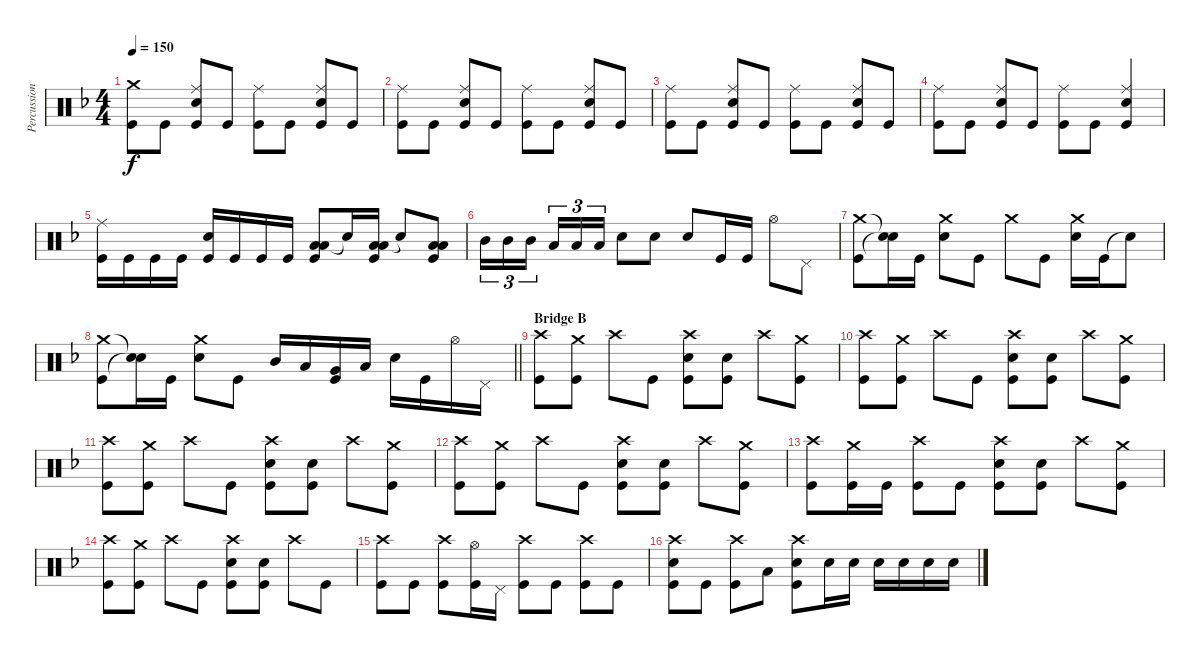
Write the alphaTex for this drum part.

\track ("Percussion" "Percussion") {instrument percussion}
\staff {score}
\articulation defaults
\ts (4 4)
\tempo 150
\clef neutral
\ks f
("Crash medium (hit)" "Kick (hit)").8{dy f} "Kick (hit)".8 ("Ride (middle)" "Electric Snare (hit)" "Kick (hit)").8 "Kick (hit)".8 ("Ride (middle)" "Kick (hit)").8 "Kick (hit)".8 ("Ride (middle)" "Electric Snare (hit)" "Kick (hit)").8 "Kick (hit)".8 |
("Ride (middle)" "Kick (hit)").8 "Kick (hit)".8 ("Ride (middle)" "Electric Snare (hit)" "Kick (hit)").8 "Kick (hit)".8 ("Ride (middle)" "Kick (hit)").8 "Kick (hit)".8 ("Ride (middle)" "Electric Snare (hit)" "Kick (hit)").8 "Kick (hit)".8 |
("Ride (middle)" "Kick (hit)").8 "Kick (hit)".8 ("Ride (middle)" "Electric Snare (hit)" "Kick (hit)").8 "Kick (hit)".8 ("Ride (middle)" "Kick (hit)").8 "Kick (hit)".8 ("Ride (middle)" "Electric Snare (hit)" "Kick (hit)").8 "Kick (hit)".8 |
("Ride (middle)" "Kick (hit)").8 "Kick (hit)".8 ("Ride (middle)" "Electric Snare (hit)" "Kick (hit)").8 "Kick (hit)".8 ("Ride (middle)" "Kick (hit)").8 "Kick (hit)".8 ("Ride (middle)" "Electric Snare (hit)" "Kick (hit)").4 |
("Ride (middle)" "Kick (hit)").16 "Kick (hit)".16 "Kick (hit)".16 "Kick (hit)".16 ("Electric Snare (hit)" "Kick (hit)").16 "Kick (hit)".16 "Kick (hit)".16 "Kick (hit)".16 ("Low Floor Tom (hit)" "Low Floor Tom (hit)" "Kick (hit)").8 "Snare (hit)"{t}.16 ("Low Floor Tom (hit)" "Low Floor Tom (hit)" "Kick (hit)").16 "Snare (hit)"{t}.8 ("Low Floor Tom (hit)" "Low Floor Tom (hit)" "Kick (hit)").8 |
"Mid Tom (hit)".16{tu (3 2)} "Mid Tom (hit)".16{tu (3 2)} "Mid Tom (hit)".16{tu (3 2) beam splitsecondary} "Low Tom (hit)".16{tu (3 2)} "Low Tom (hit)".16{tu (3 2)} "Low Tom (hit)".16{tu (3 2)} "Electric Snare (hit)".8 "Electric Snare (hit)".8 "Electric Snare (hit)".8 "Kick (hit)".16 "Kick (hit)".16 "Hi-Hat (open)".8 "Pedal Hi-Hat (hit)".8 |
("Crash medium (hit)" "Kick (hit)").8 ("Snare (hit)"{t} "Snare (hit)"{t}).16 "Kick (hit)".16 ("Crash medium (hit)" "Electric Snare (hit)").8 "Kick (hit)".8 "Crash medium (hit)".8 "Kick (hit)".8 ("Crash medium (hit)" "Electric Snare (hit)").16 "Kick (hit)".16 "Snare (hit)"{t}.8 |
\barLineRight lightlight
("Crash medium (hit)" "Kick (hit)").8 ("Snare (hit)"{t} "Snare (hit)"{t}).16 "Kick (hit)".16 ("Crash medium (hit)" "Electric Snare (hit)").8 "Kick (hit)".8 "Mid Tom (hit)".16 "Low Tom (hit)".16 ("Very Low Tom (hit)" "Kick (hit)").16 "Low Floor Tom (hit)".16 "Electric Snare (hit)".16 "Kick (hit)".16 "Hi-Hat (open)".16 "Pedal Hi-Hat (hit)".16 |
\section ("" "Bridge B")
("Crash high (hit)" "Kick (hit)").8 ("Crash medium (hit)" "Kick (hit)").8 "Crash high (hit)".8 "Kick (hit)".8 ("Crash high (hit)" "Electric Snare (hit)" "Kick (hit)").8 ("Electric Snare (hit)" "Kick (hit)").8 "Crash high (hit)".8 ("Crash medium (hit)" "Kick (hit)").8 |
("Crash high (hit)" "Kick (hit)").8 ("Crash medium (hit)" "Kick (hit)").8 "Crash high (hit)".8 "Kick (hit)".8 ("Crash high (hit)" "Electric Snare (hit)" "Kick (hit)").8 ("Electric Snare (hit)" "Kick (hit)").8 "Crash high (hit)".8 ("Crash medium (hit)" "Kick (hit)").8 |
("Crash high (hit)" "Kick (hit)").8 ("Crash medium (hit)" "Kick (hit)").8 "Crash high (hit)".8 "Kick (hit)".8 ("Crash high (hit)" "Electric Snare (hit)" "Kick (hit)").8 ("Electric Snare (hit)" "Kick (hit)").8 "Crash high (hit)".8 ("Crash medium (hit)" "Kick (hit)").8 |
("Crash high (hit)" "Kick (hit)").8 ("Crash medium (hit)" "Kick (hit)").8 "Crash high (hit)".8 "Kick (hit)".8 ("Crash high (hit)" "Electric Snare (hit)" "Kick (hit)").8 ("Electric Snare (hit)" "Kick (hit)").8 "Crash high (hit)".8 ("Crash medium (hit)" "Kick (hit)").8 |
("Crash high (hit)" "Kick (hit)").8 ("Crash medium (hit)" "Kick (hit)").16 "Kick (hit)".16 ("Crash high (hit)" "Kick (hit)").8 "Kick (hit)".8 ("Crash high (hit)" "Electric Snare (hit)" "Kick (hit)").8 ("Electric Snare (hit)" "Kick (hit)").8 "Crash high (hit)".8 ("Crash medium (hit)" "Kick (hit)").8 |
("Crash high (hit)" "Kick (hit)").8 ("Crash medium (hit)" "Kick (hit)").8 "Crash high (hit)".8 "Kick (hit)".8 ("Crash high (hit)" "Electric Snare (hit)" "Kick (hit)").8 ("Electric Snare (hit)" "Kick (hit)").8 "Crash high (hit)".8 "Kick (hit)".8 |
("Crash high (hit)" "Kick (hit)").8 "Kick (hit)".8 ("Crash high (hit)" "Kick (hit)").8 ("Hi-Hat (open)" "Kick (hit)").16 "Pedal Hi-Hat (hit)".16 ("Crash high (hit)" "Kick (hit)").8 "Kick (hit)".8 ("Crash high (hit)" "Kick (hit)").8 "Kick (hit)".8 |
("Crash high (hit)" "Electric Snare (hit)" "Kick (hit)").8 "Kick (hit)".8 ("Crash high (hit)" "Kick (hit)").8 "Low Floor Tom (hit)".8 ("Crash high (hit)" "Electric Snare (hit)" "Kick (hit)").8 "Electric Snare (hit)".16 "Electric Snare (hit)".16 "Electric Snare (hit)".16 "Electric Snare (hit)".16 "Electric Snare (hit)".16 "Electric Snare (hit)".16
